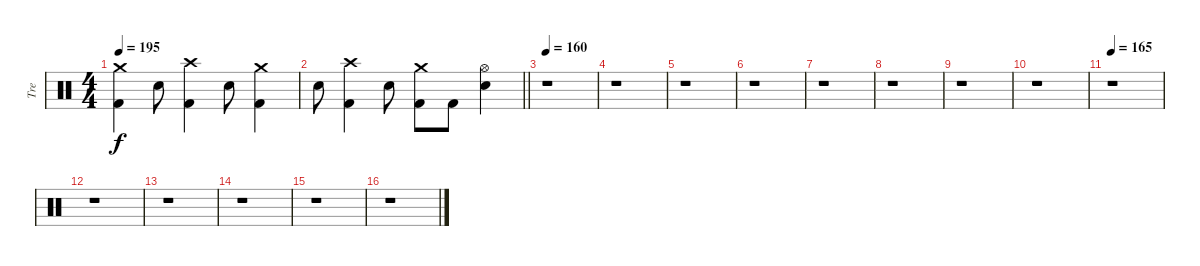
\track ("Tre" "Tre") {instrument percussion}
\staff {score}
\articulation defaults
\ts (4 4)
\tempo 195
\clef neutral
\ks c
("Crash medium (hit)" "Kick (hit) 2").4{dy f} "Snare (hit) 2".8 ("Crash high (hit)" "Kick (hit) 2").4 "Snare (hit) 2".8 ("Crash medium (hit)" "Kick (hit) 2").4 |
\barLineRight lightlight "Snare (hit) 2".8
("Crash high (hit)" "Kick (hit) 2").4 "Snare (hit) 2".8 ("Crash medium (hit)" "Kick (hit) 2").8 "Kick (hit) 2".8 ("Hi-Hat (open)" "Snare (hit) 2").4 |
\tempo 160
r.1 |
r.1 |
r.1 |
r.1 |
r.1 |
r.1 |
r.1 |
r.1 |
\tempo 165
r.1 |
r.1 |
r.1 |
r.1 |
r.1 |
r.1
